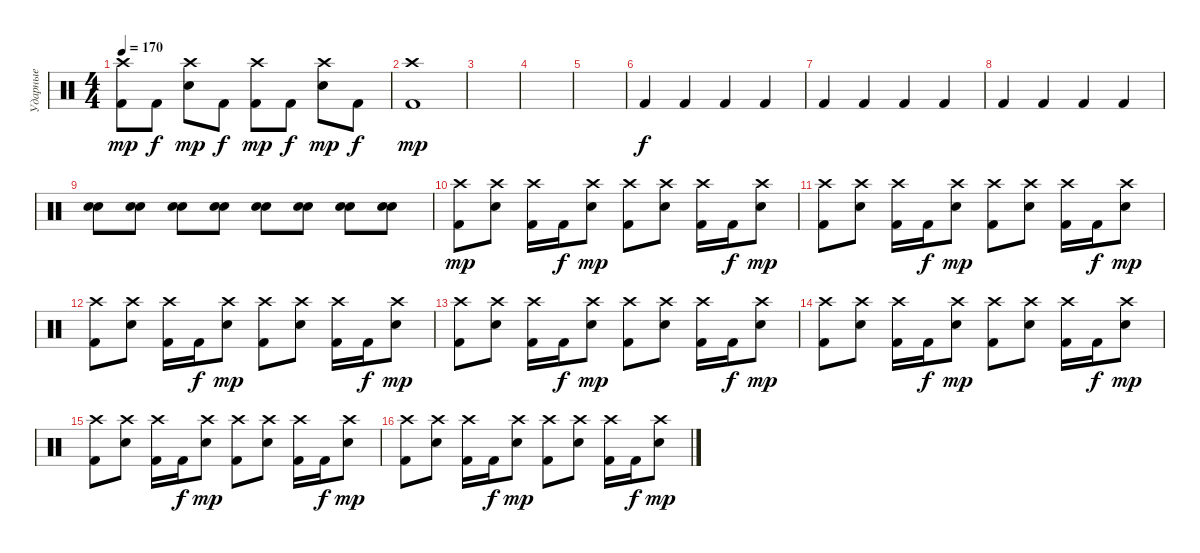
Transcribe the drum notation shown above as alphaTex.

\track ("Ударные" "Ударные") {instrument percussion}
\staff {score}
\articulation defaults
\ts (4 4)
\tempo 170
\clef neutral
\ks c
("Crash high (hit)" "Kick (hit) 2").8{dy mp} "Kick (hit) 2".8{dy f} ("Crash high (hit)" "Electric Snare (hit)").8{dy mp} "Kick (hit) 2".8{dy f} ("Crash high (hit)" "Kick (hit) 2").8{dy mp} "Kick (hit) 2".8{dy f} ("Crash high (hit)" "Electric Snare (hit)").8{dy mp} "Kick (hit) 2".8{dy f} |
("Crash high (hit)" "Kick (hit) 2").1{dy mp} |
|
|
|
"Kick (hit) 2".4{dy f} "Kick (hit) 2".4 "Kick (hit) 2".4 "Kick (hit) 2".4 |
"Kick (hit) 2".4 "Kick (hit) 2".4 "Kick (hit) 2".4 "Kick (hit) 2".4 |
"Kick (hit) 2".4 "Kick (hit) 2".4 "Kick (hit) 2".4 "Kick (hit) 2".4 |
("Snare (hit) 2" "Electric Snare (hit)").8 ("Snare (hit) 2" "Electric Snare (hit)").8 ("Snare (hit) 2" "Electric Snare (hit)").8 ("Snare (hit) 2" "Electric Snare (hit)").8 ("Snare (hit) 2" "Electric Snare (hit)").8 ("Snare (hit) 2" "Electric Snare (hit)").8 ("Snare (hit) 2" "Electric Snare (hit)").8 ("Snare (hit) 2" "Electric Snare (hit)").8 |
("Crash high (hit)" "Kick (hit) 2").8{dy mp} ("Crash high (hit)" "Electric Snare (hit)").8 ("Crash high (hit)" "Kick (hit) 2").16 "Kick (hit) 2".16{dy f} ("Crash high (hit)" "Electric Snare (hit)").8{dy mp} ("Crash high (hit)" "Kick (hit) 2").8 ("Crash high (hit)" "Electric Snare (hit)").8 ("Crash high (hit)" "Kick (hit) 2").16 "Kick (hit) 2".16{dy f} ("Crash high (hit)" "Electric Snare (hit)").8{dy mp} |
("Crash high (hit)" "Kick (hit) 2").8 ("Crash high (hit)" "Electric Snare (hit)").8 ("Crash high (hit)" "Kick (hit) 2").16 "Kick (hit) 2".16{dy f} ("Crash high (hit)" "Electric Snare (hit)").8{dy mp} ("Crash high (hit)" "Kick (hit) 2").8 ("Crash high (hit)" "Electric Snare (hit)").8 ("Crash high (hit)" "Kick (hit) 2").16 "Kick (hit) 2".16{dy f} ("Crash high (hit)" "Electric Snare (hit)").8{dy mp} |
("Crash high (hit)" "Kick (hit) 2").8 ("Crash high (hit)" "Electric Snare (hit)").8 ("Crash high (hit)" "Kick (hit) 2").16 "Kick (hit) 2".16{dy f} ("Crash high (hit)" "Electric Snare (hit)").8{dy mp} ("Crash high (hit)" "Kick (hit) 2").8 ("Crash high (hit)" "Electric Snare (hit)").8 ("Crash high (hit)" "Kick (hit) 2").16 "Kick (hit) 2".16{dy f} ("Crash high (hit)" "Electric Snare (hit)").8{dy mp} |
("Crash high (hit)" "Kick (hit) 2").8 ("Crash high (hit)" "Electric Snare (hit)").8 ("Crash high (hit)" "Kick (hit) 2").16 "Kick (hit) 2".16{dy f} ("Crash high (hit)" "Electric Snare (hit)").8{dy mp} ("Crash high (hit)" "Kick (hit) 2").8 ("Crash high (hit)" "Electric Snare (hit)").8 ("Crash high (hit)" "Kick (hit) 2").16 "Kick (hit) 2".16{dy f} ("Crash high (hit)" "Electric Snare (hit)").8{dy mp} |
("Crash high (hit)" "Kick (hit) 2").8 ("Crash high (hit)" "Electric Snare (hit)").8 ("Crash high (hit)" "Kick (hit) 2").16 "Kick (hit) 2".16{dy f} ("Crash high (hit)" "Electric Snare (hit)").8{dy mp} ("Crash high (hit)" "Kick (hit) 2").8 ("Crash high (hit)" "Electric Snare (hit)").8 ("Crash high (hit)" "Kick (hit) 2").16 "Kick (hit) 2".16{dy f} ("Crash high (hit)" "Electric Snare (hit)").8{dy mp} |
("Crash high (hit)" "Kick (hit) 2").8 ("Crash high (hit)" "Electric Snare (hit)").8 ("Crash high (hit)" "Kick (hit) 2").16 "Kick (hit) 2".16{dy f} ("Crash high (hit)" "Electric Snare (hit)").8{dy mp} ("Crash high (hit)" "Kick (hit) 2").8 ("Crash high (hit)" "Electric Snare (hit)").8 ("Crash high (hit)" "Kick (hit) 2").16 "Kick (hit) 2".16{dy f} ("Crash high (hit)" "Electric Snare (hit)").8{dy mp} |
("Crash high (hit)" "Kick (hit) 2").8 ("Crash high (hit)" "Electric Snare (hit)").8 ("Crash high (hit)" "Kick (hit) 2").16 "Kick (hit) 2".16{dy f} ("Crash high (hit)" "Electric Snare (hit)").8{dy mp} ("Crash high (hit)" "Kick (hit) 2").8 ("Crash high (hit)" "Electric Snare (hit)").8 ("Crash high (hit)" "Kick (hit) 2").16 "Kick (hit) 2".16{dy f} ("Crash high (hit)" "Electric Snare (hit)").8{dy mp}
